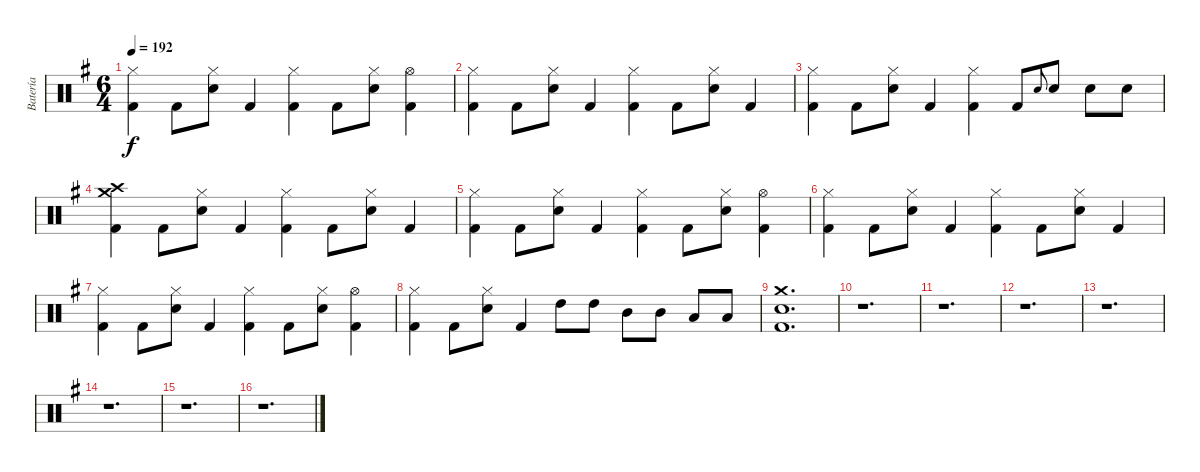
\track ("Batería" "Batería") {instrument percussion}
\staff {score}
\articulation defaults
\ts (6 4)
\tempo 192
\clef neutral
\ks eminor
("Hi-Hat (closed)" "Kick (hit) 2").4{dy f} "Kick (hit) 2".8 ("Hi-Hat (closed)" "Snare (hit) 2").8 "Kick (hit) 2".4 ("Hi-Hat (closed)" "Kick (hit) 2").4 "Kick (hit) 2".8 ("Hi-Hat (closed)" "Snare (hit) 2").8 ("Hi-Hat (open)" "Kick (hit) 2").4 |
("Hi-Hat (closed)" "Kick (hit) 2").4 "Kick (hit) 2".8 ("Hi-Hat (closed)" "Snare (hit) 2").8 "Kick (hit) 2".4 ("Hi-Hat (closed)" "Kick (hit) 2").4 "Kick (hit) 2".8 ("Hi-Hat (closed)" "Snare (hit) 2").8 "Kick (hit) 2".4 |
("Hi-Hat (closed)" "Kick (hit) 2").4 "Kick (hit) 2".8 ("Hi-Hat (closed)" "Snare (hit) 2").8 "Kick (hit) 2".4 ("Hi-Hat (closed)" "Kick (hit) 2").4 "Kick (hit) 2".8 "Snare (hit) 2".8{gr onbeat} "Snare (hit) 2".8 "Snare (hit) 2".8 "Snare (hit) 2".8 |
("Crash medium (hit)" "Crash high (hit)" "Kick (hit) 2").4 "Kick (hit) 2".8 ("Hi-Hat (closed)" "Snare (hit) 2").8 "Kick (hit) 2".4 ("Hi-Hat (closed)" "Kick (hit) 2").4 "Kick (hit) 2".8 ("Hi-Hat (closed)" "Snare (hit) 2").8 "Kick (hit) 2".4 |
("Hi-Hat (closed)" "Kick (hit) 2").4 "Kick (hit) 2".8 ("Hi-Hat (closed)" "Snare (hit) 2").8 "Kick (hit) 2".4 ("Hi-Hat (closed)" "Kick (hit) 2").4 "Kick (hit) 2".8 ("Hi-Hat (closed)" "Snare (hit) 2").8 ("Hi-Hat (open)" "Kick (hit) 2").4 |
("Hi-Hat (closed)" "Kick (hit) 2").4 "Kick (hit) 2".8 ("Hi-Hat (closed)" "Snare (hit) 2").8 "Kick (hit) 2".4 ("Hi-Hat (closed)" "Kick (hit) 2").4 "Kick (hit) 2".8 ("Hi-Hat (closed)" "Snare (hit) 2").8 "Kick (hit) 2".4 |
("Hi-Hat (closed)" "Kick (hit) 2").4 "Kick (hit) 2".8 ("Hi-Hat (closed)" "Snare (hit) 2").8 "Kick (hit) 2".4 ("Hi-Hat (closed)" "Kick (hit) 2").4 "Kick (hit) 2".8 ("Hi-Hat (closed)" "Snare (hit) 2").8 ("Hi-Hat (open)" "Kick (hit) 2").4 |
("Hi-Hat (closed)" "Kick (hit) 2").4 "Kick (hit) 2".8 ("Hi-Hat (closed)" "Snare (hit) 2").8 "Kick (hit) 2".4 "High Tom (hit)".8 "High Tom (hit)".8 "Mid Tom (hit)".8 "Mid Tom (hit)".8 "Low Tom (hit)".8 "Low Tom (hit)".8 |
("Crash medium (hit)" "Snare (hit) 2" "Kick (hit) 2").1{d} |
r.1{d} |
r.1{d} |
r.1{d} |
r.1{d} |
r.1{d} |
r.1{d} |
r.1{d}
